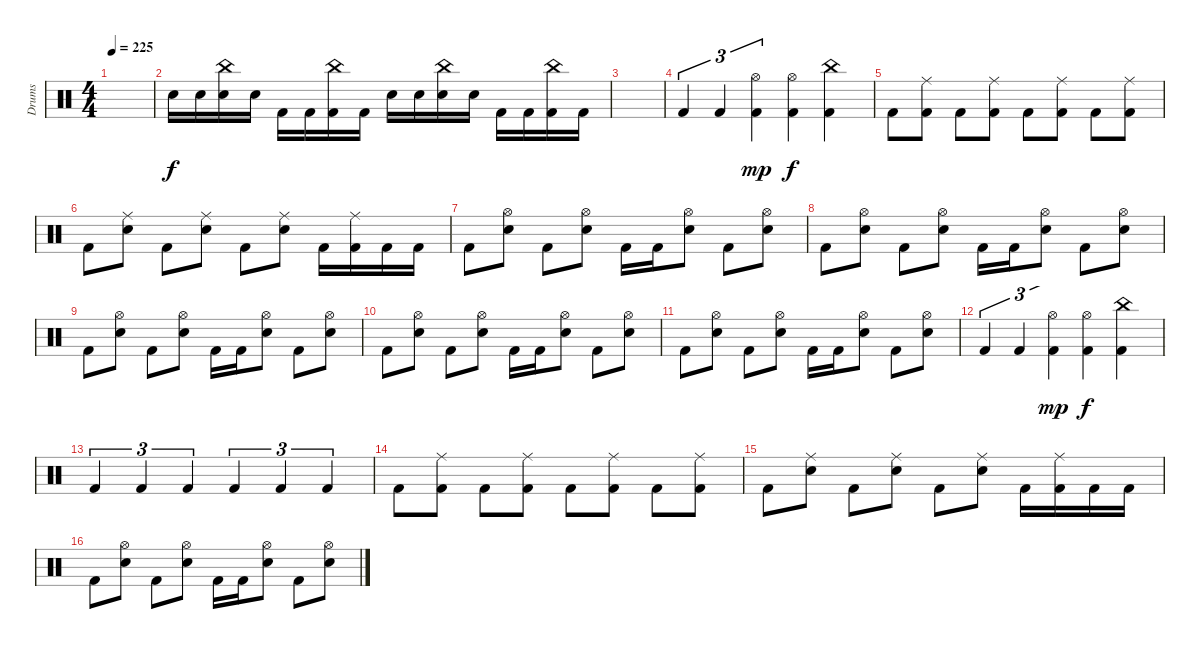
\track ("Drums" "Drums") {instrument percussion}
\staff {score}
\articulation defaults
\ts (4 4)
\tempo 225
\clef neutral
\ks c
|
"Electric Snare (hit)".16 "Electric Snare (hit)".16 ("China (hit)" "Electric Snare (hit)").16 "Electric Snare (hit)".16 "Kick (hit) 2".16 "Kick (hit) 2".16 ("China (hit)" "Kick (hit) 2").16 "Kick (hit) 2".16 "Electric Snare (hit)".16 "Electric Snare (hit)".16 ("China (hit)" "Electric Snare (hit)").16 "Electric Snare (hit)".16 "Kick (hit) 2".16 "Kick (hit) 2".16 ("China (hit)" "Kick (hit) 2").16 "Kick (hit) 2".16 |
|
"Kick (hit) 2".4{tu (3 2)} "Kick (hit) 2".4{tu (3 2)} ("Hi-Hat (open)" "Kick (hit) 2").4{tu (3 2) dy mp} ("Hi-Hat (open)" "Kick (hit) 2").4{dy f} ("China (hit)" "Kick (hit) 2").4 |
"Kick (hit) 2".8 ("Ride (middle)" "Kick (hit) 2").8 "Kick (hit) 2".8 ("Ride (middle)" "Kick (hit) 2").8 "Kick (hit) 2".8 ("Ride (middle)" "Kick (hit) 2").8 "Kick (hit) 2".8 ("Ride (middle)" "Kick (hit) 2").8 |
"Kick (hit) 2".8 ("Ride (middle)" "Electric Snare (hit)").8 "Kick (hit) 2".8 ("Ride (middle)" "Electric Snare (hit)").8 "Kick (hit) 2".8 ("Ride (middle)" "Electric Snare (hit)").8 "Kick (hit) 2".16 ("Ride (middle)" "Kick (hit) 2").16 "Kick (hit) 2".16 "Kick (hit) 2".16 |
"Kick (hit) 2".8 ("Hi-Hat (open)" "Electric Snare (hit)").8 "Kick (hit) 2".8 ("Hi-Hat (open)" "Electric Snare (hit)").8 "Kick (hit) 2".16 "Kick (hit) 2".16 ("Hi-Hat (open)" "Electric Snare (hit)").8 "Kick (hit) 2".8 ("Hi-Hat (open)" "Electric Snare (hit)").8 |
"Kick (hit) 2".8 ("Hi-Hat (open)" "Electric Snare (hit)").8 "Kick (hit) 2".8 ("Hi-Hat (open)" "Electric Snare (hit)").8 "Kick (hit) 2".16 "Kick (hit) 2".16 ("Hi-Hat (open)" "Electric Snare (hit)").8 "Kick (hit) 2".8 ("Hi-Hat (open)" "Electric Snare (hit)").8 |
"Kick (hit) 2".8 ("Hi-Hat (open)" "Electric Snare (hit)").8 "Kick (hit) 2".8 ("Hi-Hat (open)" "Electric Snare (hit)").8 "Kick (hit) 2".16 "Kick (hit) 2".16 ("Hi-Hat (open)" "Electric Snare (hit)").8 "Kick (hit) 2".8 ("Hi-Hat (open)" "Electric Snare (hit)").8 |
"Kick (hit) 2".8 ("Hi-Hat (open)" "Electric Snare (hit)").8 "Kick (hit) 2".8 ("Hi-Hat (open)" "Electric Snare (hit)").8 "Kick (hit) 2".16 "Kick (hit) 2".16 ("Hi-Hat (open)" "Electric Snare (hit)").8 "Kick (hit) 2".8 ("Hi-Hat (open)" "Electric Snare (hit)").8 |
"Kick (hit) 2".8 ("Hi-Hat (open)" "Electric Snare (hit)").8 "Kick (hit) 2".8 ("Hi-Hat (open)" "Electric Snare (hit)").8 "Kick (hit) 2".16 "Kick (hit) 2".16 ("Hi-Hat (open)" "Electric Snare (hit)").8 "Kick (hit) 2".8 ("Hi-Hat (open)" "Electric Snare (hit)").8 |
"Kick (hit) 2".4{tu (3 2)} "Kick (hit) 2".4{tu (3 2)} ("Hi-Hat (open)" "Kick (hit) 2").4{tu (3 2) dy mp} ("Hi-Hat (open)" "Kick (hit) 2").4{dy f} ("China (hit)" "Kick (hit) 2").4 |
"Kick (hit) 2".4{tu (3 2)} "Kick (hit) 2".4{tu (3 2)} "Kick (hit) 2".4{tu (3 2)} "Kick (hit) 2".4{tu (3 2)} "Kick (hit) 2".4{tu (3 2)} "Kick (hit) 2".4{tu (3 2)} |
"Kick (hit) 2".8 ("Ride (middle)" "Kick (hit) 2").8 "Kick (hit) 2".8 ("Ride (middle)" "Kick (hit) 2").8 "Kick (hit) 2".8 ("Ride (middle)" "Kick (hit) 2").8 "Kick (hit) 2".8 ("Ride (middle)" "Kick (hit) 2").8 |
"Kick (hit) 2".8 ("Ride (middle)" "Electric Snare (hit)").8 "Kick (hit) 2".8 ("Ride (middle)" "Electric Snare (hit)").8 "Kick (hit) 2".8 ("Ride (middle)" "Electric Snare (hit)").8 "Kick (hit) 2".16 ("Ride (middle)" "Kick (hit) 2").16 "Kick (hit) 2".16 "Kick (hit) 2".16 |
"Kick (hit) 2".8 ("Hi-Hat (open)" "Electric Snare (hit)").8 "Kick (hit) 2".8 ("Hi-Hat (open)" "Electric Snare (hit)").8 "Kick (hit) 2".16 "Kick (hit) 2".16 ("Hi-Hat (open)" "Electric Snare (hit)").8 "Kick (hit) 2".8 ("Hi-Hat (open)" "Electric Snare (hit)").8
